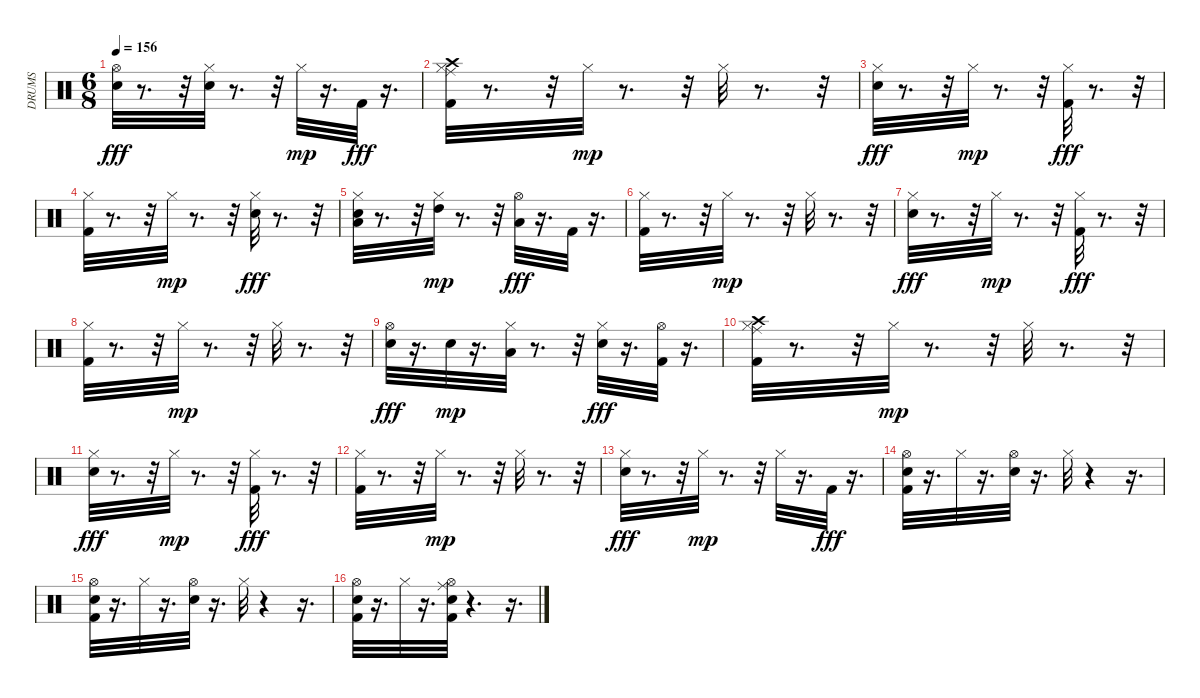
\track ("DRUMS" "DRUMS") {instrument percussion}
\staff {score}
\articulation defaults
\ts (6 8)
\tempo 156
\clef neutral
\ks c
("Hi-Hat (open)" "Snare (hit) 2").32{dy fff} r.8{d} r.32 ("Hi-Hat (closed)" "Snare (hit) 2").32 r.8{d} r.32 "Hi-Hat (closed)".32{dy mp} r.16{d} "Kick (hit) 2".32{dy fff} r.16{d} |
("Crash high (hit)" "Ride (middle)" "Hi-Hat (closed)" "Kick (hit) 2").32 r.8{d} r.32 "Hi-Hat (closed)".32{dy mp} r.8{d} r.32 "Hi-Hat (closed)".32 r.8{d} r.32 |
("Hi-Hat (closed)" "Snare (hit) 2").32{dy fff} r.8{d} r.32 "Hi-Hat (closed)".32{dy mp} r.8{d} r.32 ("Hi-Hat (closed)" "Kick (hit) 2").32{dy fff} r.8{d} r.32 |
("Hi-Hat (closed)" "Kick (hit) 2").32 r.8{d} r.32 "Hi-Hat (closed)".32{dy mp} r.8{d} r.32 ("Hi-Hat (closed)" "Snare (hit) 2").32{dy fff} r.8{d} r.32 |
("Low Tom (hit)" "Hi-Hat (closed)" "Snare (hit) 2").32 r.8{d} r.32 ("High Tom (hit)" "Hi-Hat (closed)").32{dy mp} r.8{d} r.32 ("Low Floor Tom (hit)" "Hi-Hat (open)").32{dy fff} r.16{d} "Kick (hit) 2".32 r.16{d} |
("Hi-Hat (closed)" "Kick (hit) 2").32 r.8{d} r.32 "Hi-Hat (closed)".32{dy mp} r.8{d} r.32 "Hi-Hat (closed)".32 r.8{d} r.32 |
("Snare (hit) 2" "Hi-Hat (closed)").32{dy fff} r.8{d} r.32 "Hi-Hat (closed)".32{dy mp} r.8{d} r.32 ("Hi-Hat (closed)" "Kick (hit) 2").32{dy fff} r.8{d} r.32 |
("Hi-Hat (closed)" "Kick (hit) 2").32 r.8{d} r.32 "Hi-Hat (closed)".32{dy mp} r.8{d} r.32 "Hi-Hat (closed)".32 r.8{d} r.32 |
("Hi-Hat (open)" "Snare (hit) 2").32{dy fff} r.16{d} "Snare (hit) 2".32{dy mp} r.16{d} ("Low Floor Tom (hit)" "Hi-Hat (closed)").32 r.8{d} r.32 ("Hi-Hat (closed)" "Snare (hit) 2").32{dy fff} r.16{d} ("Kick (hit) 2" "Hi-Hat (open)").32 r.16{d} |
("Ride (middle)" "Crash high (hit)" "Hi-Hat (closed)" "Kick (hit) 2").32 r.8{d} r.32 "Hi-Hat (closed)".32{dy mp} r.8{d} r.32 "Hi-Hat (closed)".32 r.8{d} r.32 |
("Hi-Hat (closed)" "Snare (hit) 2").32{dy fff} r.8{d} r.32 "Hi-Hat (closed)".32{dy mp} r.8{d} r.32 ("Hi-Hat (closed)" "Kick (hit) 2").32{dy fff} r.8{d} r.32 |
("Hi-Hat (closed)" "Kick (hit) 2").32 r.8{d} r.32 "Hi-Hat (closed)".32{dy mp} r.8{d} r.32 "Hi-Hat (closed)".32 r.8{d} r.32 |
("Hi-Hat (closed)" "Snare (hit) 2").32{dy fff} r.8{d} r.32 "Hi-Hat (closed)".32{dy mp} r.8{d} r.32 "Hi-Hat (closed)".32 r.16{d} "Kick (hit) 2".32{dy fff} r.16{d} |
("Hi-Hat (open)" "Snare (hit) 2" "Kick (hit) 2").32 r.16{d} "Hi-Hat (closed)".32 r.16{d} ("Hi-Hat (open)" "Snare (hit) 2").32 r.16{d} "Hi-Hat (closed)".32 r.4 r.16{d} |
("Hi-Hat (open)" "Snare (hit) 2" "Kick (hit) 2").32 r.16{d} "Hi-Hat (closed)".32 r.16{d} ("Hi-Hat (open)" "Snare (hit) 2").32 r.16{d} "Hi-Hat (closed)".32 r.4 r.16{d} |
("Hi-Hat (open)" "Snare (hit) 2" "Kick (hit) 2").32 r.16{d} "Hi-Hat (closed)".32 r.16{d} ("Kick (hit) 2" "Ride (middle)" "Hi-Hat (open)" "Snare (hit) 2").32 r.4{d} r.16{d}
